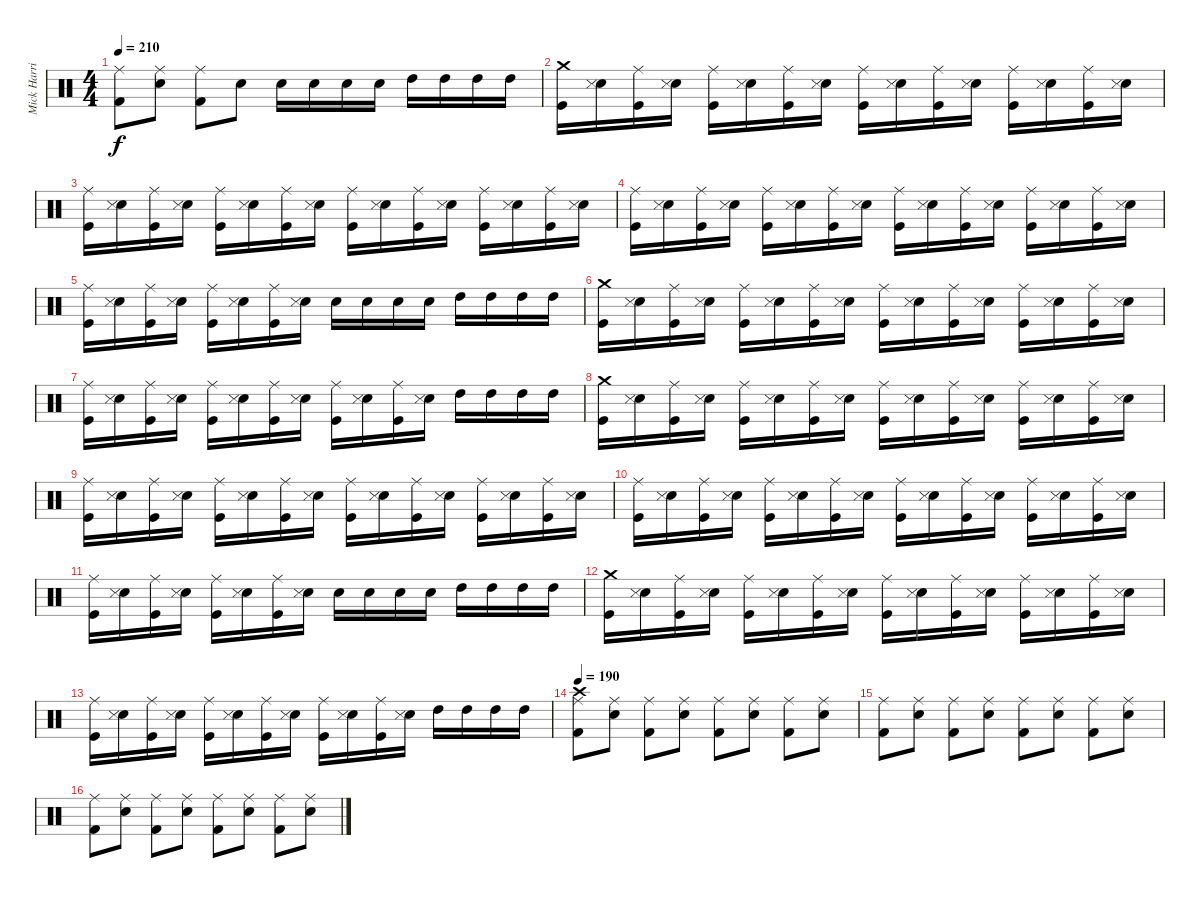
\track ("Mick Harris (Drums)" "Mick Harri") {instrument percussion}
\staff {score}
\articulation defaults
\ts (4 4)
\tempo 210
\clef neutral
\ks c
("Kick (hit) 2" "Ride (middle)").8{dy f} ("Electric Snare (hit)" "Ride (middle)").8 ("Kick (hit) 2" "Ride (middle)").8 "Electric Snare (hit)".8 "Electric Snare (hit)".16 "Electric Snare (hit)".16 "Electric Snare (hit)".16 "Electric Snare (hit)".16 "High Tom (hit)".16 "High Tom (hit)".16 "High Tom (hit)".16 "High Tom (hit)".16 |
("Kick (hit)" "Crash medium (hit)").16 ("Electric Snare (hit)" "Snare (side stick) 3").16 ("Kick (hit)" "Ride (middle)").16 ("Electric Snare (hit)" "Snare (side stick) 3").16 ("Kick (hit)" "Ride (middle)").16 ("Electric Snare (hit)" "Snare (side stick) 3").16 ("Kick (hit)" "Ride (middle)").16 ("Electric Snare (hit)" "Snare (side stick) 3").16 ("Kick (hit)" "Ride (middle)").16 ("Electric Snare (hit)" "Snare (side stick) 3").16 ("Kick (hit)" "Ride (middle)").16 ("Electric Snare (hit)" "Snare (side stick) 3").16 ("Kick (hit)" "Ride (middle)").16 ("Electric Snare (hit)" "Snare (side stick) 3").16 ("Kick (hit)" "Ride (middle)").16 ("Electric Snare (hit)" "Snare (side stick) 3").16 |
("Kick (hit)" "Ride (middle)").16 ("Electric Snare (hit)" "Snare (side stick) 3").16 ("Kick (hit)" "Ride (middle)").16 ("Electric Snare (hit)" "Snare (side stick) 3").16 ("Kick (hit)" "Ride (middle)").16 ("Electric Snare (hit)" "Snare (side stick) 3").16 ("Kick (hit)" "Ride (middle)").16 ("Electric Snare (hit)" "Snare (side stick) 3").16 ("Kick (hit)" "Ride (middle)").16 ("Electric Snare (hit)" "Snare (side stick) 3").16 ("Kick (hit)" "Ride (middle)").16 ("Electric Snare (hit)" "Snare (side stick) 3").16 ("Kick (hit)" "Ride (middle)").16 ("Electric Snare (hit)" "Snare (side stick) 3").16 ("Kick (hit)" "Ride (middle)").16 ("Electric Snare (hit)" "Snare (side stick) 3").16 |
("Kick (hit)" "Ride (middle)").16 ("Electric Snare (hit)" "Snare (side stick) 3").16 ("Kick (hit)" "Ride (middle)").16 ("Electric Snare (hit)" "Snare (side stick) 3").16 ("Kick (hit)" "Ride (middle)").16 ("Electric Snare (hit)" "Snare (side stick) 3").16 ("Kick (hit)" "Ride (middle)").16 ("Electric Snare (hit)" "Snare (side stick) 3").16 ("Kick (hit)" "Ride (middle)").16 ("Electric Snare (hit)" "Snare (side stick) 3").16 ("Kick (hit)" "Ride (middle)").16 ("Electric Snare (hit)" "Snare (side stick) 3").16 ("Kick (hit)" "Ride (middle)").16 ("Electric Snare (hit)" "Snare (side stick) 3").16 ("Kick (hit)" "Ride (middle)").16 ("Electric Snare (hit)" "Snare (side stick) 3").16 |
("Kick (hit)" "Ride (middle)").16 ("Electric Snare (hit)" "Snare (side stick) 3").16 ("Kick (hit)" "Ride (middle)").16 ("Electric Snare (hit)" "Snare (side stick) 3").16 ("Kick (hit)" "Ride (middle)").16 ("Electric Snare (hit)" "Snare (side stick) 3").16 ("Kick (hit)" "Ride (middle)").16 ("Electric Snare (hit)" "Snare (side stick) 3").16 "Electric Snare (hit)".16 "Electric Snare (hit)".16 "Electric Snare (hit)".16 "Electric Snare (hit)".16 "High Tom (hit)".16 "High Tom (hit)".16 "High Tom (hit)".16 "High Tom (hit)".16 |
("Kick (hit)" "Crash medium (hit)").16 ("Electric Snare (hit)" "Snare (side stick) 3").16 ("Kick (hit)" "Ride (middle)").16 ("Electric Snare (hit)" "Snare (side stick) 3").16 ("Kick (hit)" "Ride (middle)").16 ("Electric Snare (hit)" "Snare (side stick) 3").16 ("Kick (hit)" "Ride (middle)").16 ("Electric Snare (hit)" "Snare (side stick) 3").16 ("Kick (hit)" "Ride (middle)").16 ("Electric Snare (hit)" "Snare (side stick) 3").16 ("Kick (hit)" "Ride (middle)").16 ("Electric Snare (hit)" "Snare (side stick) 3").16 ("Kick (hit)" "Ride (middle)").16 ("Electric Snare (hit)" "Snare (side stick) 3").16 ("Kick (hit)" "Ride (middle)").16 ("Electric Snare (hit)" "Snare (side stick) 3").16 |
("Kick (hit)" "Ride (middle)").16 ("Electric Snare (hit)" "Snare (side stick) 3").16 ("Kick (hit)" "Ride (middle)").16 ("Electric Snare (hit)" "Snare (side stick) 3").16 ("Kick (hit)" "Ride (middle)").16 ("Electric Snare (hit)" "Snare (side stick) 3").16 ("Kick (hit)" "Ride (middle)").16 ("Electric Snare (hit)" "Snare (side stick) 3").16 ("Kick (hit)" "Ride (middle)").16 ("Electric Snare (hit)" "Snare (side stick) 3").16 ("Kick (hit)" "Ride (middle)").16 ("Electric Snare (hit)" "Snare (side stick) 3").16 "High Tom (hit)".16 "High Tom (hit)".16 "High Tom (hit)".16 "High Tom (hit)".16 |
("Kick (hit)" "Crash medium (hit)").16 ("Electric Snare (hit)" "Snare (side stick) 3").16 ("Kick (hit)" "Ride (middle)").16 ("Electric Snare (hit)" "Snare (side stick) 3").16 ("Kick (hit)" "Ride (middle)").16 ("Electric Snare (hit)" "Snare (side stick) 3").16 ("Kick (hit)" "Ride (middle)").16 ("Electric Snare (hit)" "Snare (side stick) 3").16 ("Kick (hit)" "Ride (middle)").16 ("Electric Snare (hit)" "Snare (side stick) 3").16 ("Kick (hit)" "Ride (middle)").16 ("Electric Snare (hit)" "Snare (side stick) 3").16 ("Kick (hit)" "Ride (middle)").16 ("Electric Snare (hit)" "Snare (side stick) 3").16 ("Kick (hit)" "Ride (middle)").16 ("Electric Snare (hit)" "Snare (side stick) 3").16 |
("Kick (hit)" "Ride (middle)").16 ("Electric Snare (hit)" "Snare (side stick) 3").16 ("Kick (hit)" "Ride (middle)").16 ("Electric Snare (hit)" "Snare (side stick) 3").16 ("Kick (hit)" "Ride (middle)").16 ("Electric Snare (hit)" "Snare (side stick) 3").16 ("Kick (hit)" "Ride (middle)").16 ("Electric Snare (hit)" "Snare (side stick) 3").16 ("Kick (hit)" "Ride (middle)").16 ("Electric Snare (hit)" "Snare (side stick) 3").16 ("Kick (hit)" "Ride (middle)").16 ("Electric Snare (hit)" "Snare (side stick) 3").16 ("Kick (hit)" "Ride (middle)").16 ("Electric Snare (hit)" "Snare (side stick) 3").16 ("Kick (hit)" "Ride (middle)").16 ("Electric Snare (hit)" "Snare (side stick) 3").16 |
("Kick (hit)" "Ride (middle)").16 ("Electric Snare (hit)" "Snare (side stick) 3").16 ("Kick (hit)" "Ride (middle)").16 ("Electric Snare (hit)" "Snare (side stick) 3").16 ("Kick (hit)" "Ride (middle)").16 ("Electric Snare (hit)" "Snare (side stick) 3").16 ("Kick (hit)" "Ride (middle)").16 ("Electric Snare (hit)" "Snare (side stick) 3").16 ("Kick (hit)" "Ride (middle)").16 ("Electric Snare (hit)" "Snare (side stick) 3").16 ("Kick (hit)" "Ride (middle)").16 ("Electric Snare (hit)" "Snare (side stick) 3").16 ("Kick (hit)" "Ride (middle)").16 ("Electric Snare (hit)" "Snare (side stick) 3").16 ("Kick (hit)" "Ride (middle)").16 ("Electric Snare (hit)" "Snare (side stick) 3").16 |
("Kick (hit)" "Ride (middle)").16 ("Electric Snare (hit)" "Snare (side stick) 3").16 ("Kick (hit)" "Ride (middle)").16 ("Electric Snare (hit)" "Snare (side stick) 3").16 ("Kick (hit)" "Ride (middle)").16 ("Electric Snare (hit)" "Snare (side stick) 3").16 ("Kick (hit)" "Ride (middle)").16 ("Electric Snare (hit)" "Snare (side stick) 3").16 "Electric Snare (hit)".16 "Electric Snare (hit)".16 "Electric Snare (hit)".16 "Electric Snare (hit)".16 "High Tom (hit)".16 "High Tom (hit)".16 "High Tom (hit)".16 "High Tom (hit)".16 |
("Kick (hit)" "Crash medium (hit)").16 ("Electric Snare (hit)" "Snare (side stick) 3").16 ("Kick (hit)" "Ride (middle)").16 ("Electric Snare (hit)" "Snare (side stick) 3").16 ("Kick (hit)" "Ride (middle)").16 ("Electric Snare (hit)" "Snare (side stick) 3").16 ("Kick (hit)" "Ride (middle)").16 ("Electric Snare (hit)" "Snare (side stick) 3").16 ("Kick (hit)" "Ride (middle)").16 ("Electric Snare (hit)" "Snare (side stick) 3").16 ("Kick (hit)" "Ride (middle)").16 ("Electric Snare (hit)" "Snare (side stick) 3").16 ("Kick (hit)" "Ride (middle)").16 ("Electric Snare (hit)" "Snare (side stick) 3").16 ("Kick (hit)" "Ride (middle)").16 ("Electric Snare (hit)" "Snare (side stick) 3").16 |
("Kick (hit)" "Ride (middle)").16 ("Electric Snare (hit)" "Snare (side stick) 3").16 ("Kick (hit)" "Ride (middle)").16 ("Electric Snare (hit)" "Snare (side stick) 3").16 ("Kick (hit)" "Ride (middle)").16 ("Electric Snare (hit)" "Snare (side stick) 3").16 ("Kick (hit)" "Ride (middle)").16 ("Electric Snare (hit)" "Snare (side stick) 3").16 ("Kick (hit)" "Ride (middle)").16 ("Electric Snare (hit)" "Snare (side stick) 3").16 ("Kick (hit)" "Ride (middle)").16 ("Electric Snare (hit)" "Snare (side stick) 3").16 "High Tom (hit)".16 "High Tom (hit)".16 "High Tom (hit)".16 "High Tom (hit)".16 |
\tempo 190
("Kick (hit) 2" "Crash high (hit)" "Ride (middle)").8 ("Electric Snare (hit)" "Ride (middle)").8 ("Kick (hit) 2" "Ride (middle)").8 ("Electric Snare (hit)" "Ride (middle)").8 ("Kick (hit) 2" "Ride (middle)").8 ("Electric Snare (hit)" "Ride (middle)").8 ("Kick (hit) 2" "Ride (middle)").8 ("Electric Snare (hit)" "Ride (middle)").8 |
("Kick (hit) 2" "Ride (middle)").8 ("Electric Snare (hit)" "Ride (middle)").8 ("Kick (hit) 2" "Ride (middle)").8 ("Electric Snare (hit)" "Ride (middle)").8 ("Kick (hit) 2" "Ride (middle)").8 ("Electric Snare (hit)" "Ride (middle)").8 ("Kick (hit) 2" "Ride (middle)").8 ("Electric Snare (hit)" "Ride (middle)").8 |
("Kick (hit) 2" "Ride (middle)").8 ("Electric Snare (hit)" "Ride (middle)").8 ("Kick (hit) 2" "Ride (middle)").8 ("Electric Snare (hit)" "Ride (middle)").8 ("Kick (hit) 2" "Ride (middle)").8 ("Electric Snare (hit)" "Ride (middle)").8 ("Kick (hit) 2" "Ride (middle)").8 ("Electric Snare (hit)" "Ride (middle)").8
